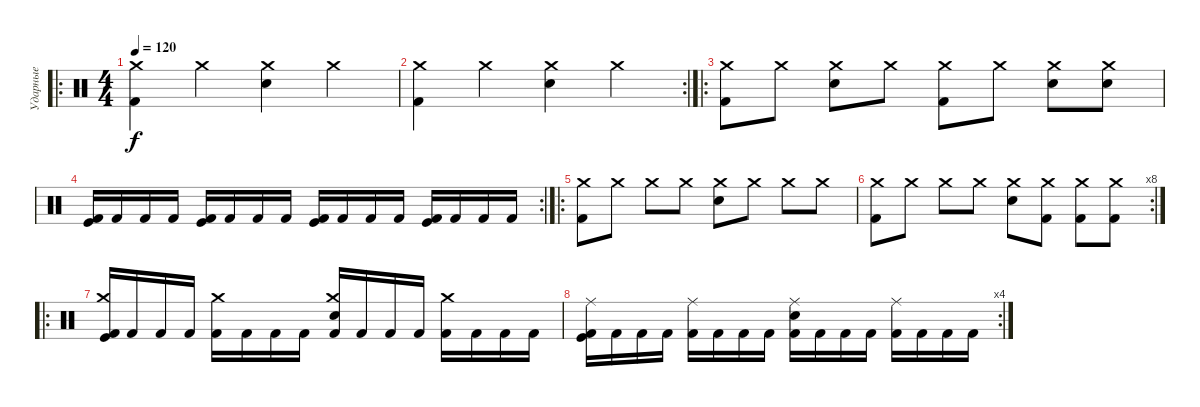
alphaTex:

\track ("Ударные" "Ударные") {instrument percussion}
\staff {score}
\articulation defaults
\ro
\ts (4 4)
\tempo 120
\clef neutral
\ks c
("Kick (hit) 2" "Crash medium (hit)").4{dy f} "Crash medium (hit)".4 ("Crash medium (hit)" "Snare (hit) 2").4 "Crash medium (hit)".4 |
\rc 2
("Kick (hit) 2" "Crash medium (hit)").4 "Crash medium (hit)".4 ("Crash medium (hit)" "Snare (hit) 2").4 "Crash medium (hit)".4 |
\ro
("Kick (hit) 2" "Crash medium (hit)").8 "Crash medium (hit)".8 ("Crash medium (hit)" "Snare (hit) 2").8 "Crash medium (hit)".8 ("Kick (hit) 2" "Crash medium (hit)").8 "Crash medium (hit)".8 ("Crash medium (hit)" "Snare (hit) 2").8 ("Crash medium (hit)" "Snare (hit) 2").8 |
\rc 2
("Kick (hit) 2" "Kick (hit)").16 "Kick (hit) 2".16 "Kick (hit) 2".16 "Kick (hit) 2".16 ("Kick (hit) 2" "Kick (hit)").16 "Kick (hit) 2".16 "Kick (hit) 2".16 "Kick (hit) 2".16 ("Kick (hit) 2" "Kick (hit)").16 "Kick (hit) 2".16 "Kick (hit) 2".16 "Kick (hit) 2".16 ("Kick (hit) 2" "Kick (hit)").16 "Kick (hit) 2".16 "Kick (hit) 2".16 "Kick (hit) 2".16 |
\ro
("Kick (hit) 2" "Crash medium (hit)").8 "Crash medium (hit)".8 "Crash medium (hit)".8 "Crash medium (hit)".8 ("Crash medium (hit)" "Snare (hit) 2").8 "Crash medium (hit)".8 "Crash medium (hit)".8 "Crash medium (hit)".8 |
\rc 8
("Kick (hit) 2" "Crash medium (hit)").8 "Crash medium (hit)".8 "Crash medium (hit)".8 "Crash medium (hit)".8 ("Crash medium (hit)" "Snare (hit) 2").8 ("Kick (hit) 2" "Crash medium (hit)").8 ("Kick (hit) 2" "Crash medium (hit)").8 ("Kick (hit) 2" "Crash medium (hit)").8 |
\ro
("Kick (hit) 2" "Crash medium (hit)" "Kick (hit)").16 "Kick (hit) 2".16 "Kick (hit) 2".16 "Kick (hit) 2".16 ("Kick (hit) 2" "Crash medium (hit)").16 "Kick (hit) 2".16 "Kick (hit) 2".16 "Kick (hit) 2".16 ("Kick (hit) 2" "Crash medium (hit)" "Snare (hit) 2").16 "Kick (hit) 2".16 "Kick (hit) 2".16 "Kick (hit) 2".16 ("Kick (hit) 2" "Crash medium (hit)").16 "Kick (hit) 2".16 "Kick (hit) 2".16 "Kick (hit) 2".16 |
\rc 4
("Kick (hit) 2" "Ride (middle)" "Kick (hit)").16 "Kick (hit) 2".16 "Kick (hit) 2".16 "Kick (hit) 2".16 ("Kick (hit) 2" "Ride (middle)").16 "Kick (hit) 2".16 "Kick (hit) 2".16 "Kick (hit) 2".16 ("Kick (hit) 2" "Ride (middle)" "Snare (hit) 2").16 "Kick (hit) 2".16 "Kick (hit) 2".16 "Kick (hit) 2".16 ("Kick (hit) 2" "Ride (middle)").16 "Kick (hit) 2".16 "Kick (hit) 2".16 "Kick (hit) 2".16
